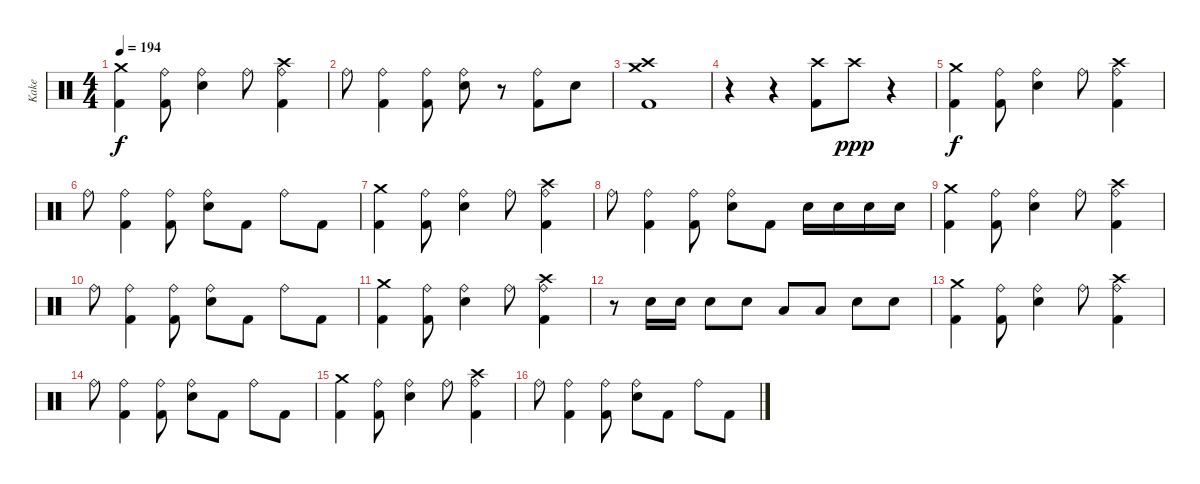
\track ("Kake" "Kake") {instrument percussion}
\staff {score}
\articulation defaults
\ts (4 4)
\tempo 194
\clef neutral
\ks c
("Crash medium (hit)" "Kick (hit) 2").4{dy f} ("Ride (bell)" "Kick (hit) 2").8 ("Ride (bell)" "Electric Snare (hit)").4 "Ride (bell)".8 ("Ride (bell)" "Crash high (hit)" "Kick (hit) 2").4 |
"Ride (bell)".8 ("Ride (bell)" "Kick (hit) 2").4 ("Ride (bell)" "Kick (hit) 2").8 ("Ride (bell)" "Electric Snare (hit)").8 r.8 ("Ride (bell)" "Kick (hit) 2").8 "Electric Snare (hit)".8 |
("Crash medium (hit)" "Crash high (hit)" "Kick (hit) 2").1 |
r.4 r.4 ("Crash high (hit)" "Kick (hit) 2").8 "Crash high (hit)".8{dy ppp} r.4 |
("Crash medium (hit)" "Kick (hit) 2").4{dy f} ("Ride (bell)" "Kick (hit) 2").8 ("Ride (bell)" "Electric Snare (hit)").4 "Ride (bell)".8 ("Ride (bell)" "Crash high (hit)" "Kick (hit) 2").4 |
"Ride (bell)".8 ("Ride (bell)" "Kick (hit) 2").4 ("Ride (bell)" "Kick (hit) 2").8 ("Ride (bell)" "Electric Snare (hit)").8 "Kick (hit) 2".8 "Ride (bell)".8 "Kick (hit) 2".8 |
("Crash medium (hit)" "Kick (hit) 2").4 ("Ride (bell)" "Kick (hit) 2").8 ("Ride (bell)" "Electric Snare (hit)").4 "Ride (bell)".8 ("Ride (bell)" "Crash high (hit)" "Kick (hit) 2").4 |
"Ride (bell)".8 ("Ride (bell)" "Kick (hit) 2").4 ("Ride (bell)" "Kick (hit) 2").8 ("Ride (bell)" "Electric Snare (hit)").8 "Kick (hit) 2".8 "Electric Snare (hit)".16 "Electric Snare (hit)".16 "Electric Snare (hit)".16 "Electric Snare (hit)".16 |
("Crash medium (hit)" "Kick (hit) 2").4 ("Ride (bell)" "Kick (hit) 2").8 ("Ride (bell)" "Electric Snare (hit)").4 "Ride (bell)".8 ("Ride (bell)" "Crash high (hit)" "Kick (hit) 2").4 |
"Ride (bell)".8 ("Ride (bell)" "Kick (hit) 2").4 ("Ride (bell)" "Kick (hit) 2").8 ("Ride (bell)" "Electric Snare (hit)").8 "Kick (hit) 2".8 "Ride (bell)".8 "Kick (hit) 2".8 |
("Crash medium (hit)" "Kick (hit) 2").4 ("Ride (bell)" "Kick (hit) 2").8 ("Ride (bell)" "Electric Snare (hit)").4 "Ride (bell)".8 ("Ride (bell)" "Crash high (hit)" "Kick (hit) 2").4 |
r.8 "Electric Snare (hit)".16 "Electric Snare (hit)".16 "Electric Snare (hit)".8 "Electric Snare (hit)".8 "Low Tom (hit)".8 "Low Tom (hit)".8 "Electric Snare (hit)".8 "Electric Snare (hit)".8 |
("Crash medium (hit)" "Kick (hit) 2").4 ("Ride (bell)" "Kick (hit) 2").8 ("Ride (bell)" "Electric Snare (hit)").4 "Ride (bell)".8 ("Ride (bell)" "Crash high (hit)" "Kick (hit) 2").4 |
"Ride (bell)".8 ("Ride (bell)" "Kick (hit) 2").4 ("Ride (bell)" "Kick (hit) 2").8 ("Ride (bell)" "Electric Snare (hit)").8 "Kick (hit) 2".8 "Ride (bell)".8 "Kick (hit) 2".8 |
("Crash medium (hit)" "Kick (hit) 2").4 ("Ride (bell)" "Kick (hit) 2").8 ("Ride (bell)" "Electric Snare (hit)").4 "Ride (bell)".8 ("Ride (bell)" "Crash high (hit)" "Kick (hit) 2").4 |
"Ride (bell)".8 ("Ride (bell)" "Kick (hit) 2").4 ("Ride (bell)" "Kick (hit) 2").8 ("Ride (bell)" "Electric Snare (hit)").8 "Kick (hit) 2".8 "Ride (bell)".8 "Kick (hit) 2".8
